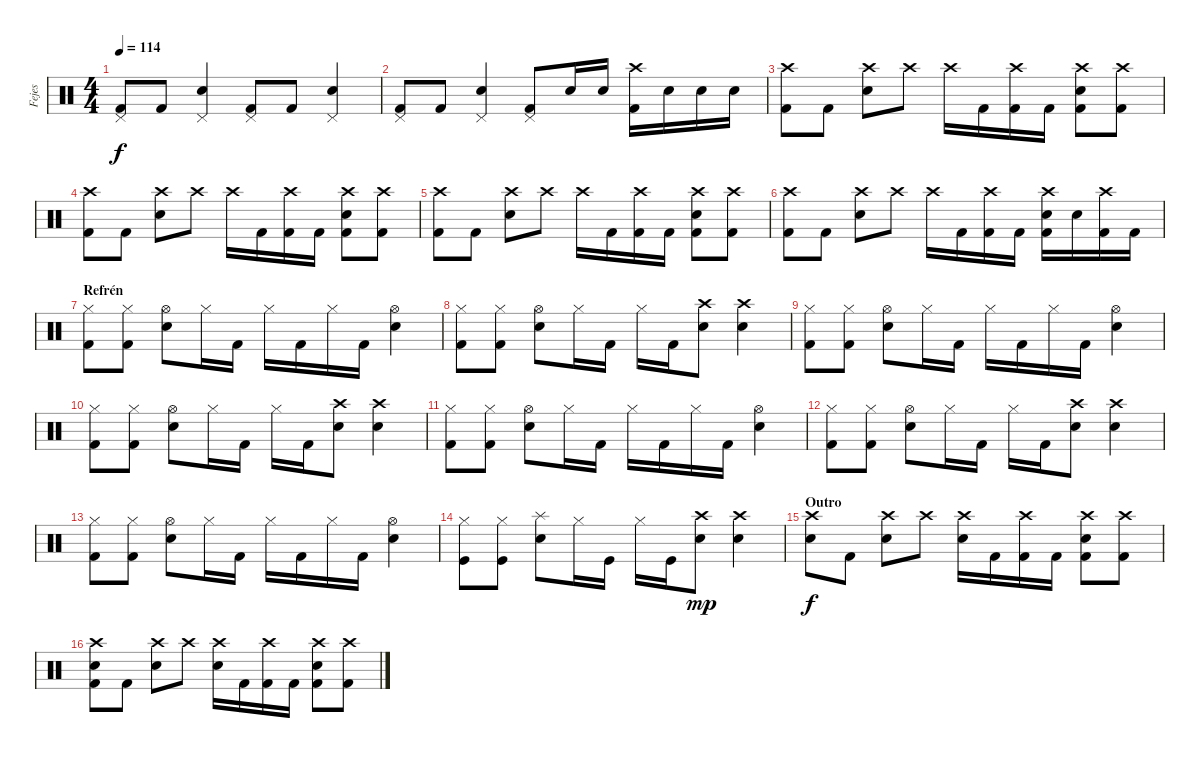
\track ("Fejes" "Fejes") {instrument percussion}
\staff {score}
\articulation defaults
\ts (4 4)
\tempo 114
\clef neutral
\ks c
("Pedal Hi-Hat (hit)" "Kick (hit) 2").8{dy f} "Kick (hit) 2".8 ("Pedal Hi-Hat (hit)" "Electric Snare (hit)").4 ("Pedal Hi-Hat (hit)" "Kick (hit) 2").8 "Kick (hit) 2".8 ("Pedal Hi-Hat (hit)" "Electric Snare (hit)").4 |
("Pedal Hi-Hat (hit)" "Kick (hit) 2").8 "Kick (hit) 2".8 ("Pedal Hi-Hat (hit)" "Electric Snare (hit)").4 ("Pedal Hi-Hat (hit)" "Kick (hit) 2").8 "Electric Snare (hit)".16 "Electric Snare (hit)".16 ("Crash high (hit)" "Kick (hit) 2").16 "Electric Snare (hit)".16 "Electric Snare (hit)".16 "Electric Snare (hit)".16 |
("Crash high (hit)" "Kick (hit) 2").8 "Kick (hit) 2".8 ("Crash high (hit)" "Electric Snare (hit)").8 "Crash high (hit)".8 "Crash high (hit)".16 "Kick (hit) 2".16 ("Crash high (hit)" "Kick (hit) 2").16 "Kick (hit) 2".16 ("Crash high (hit)" "Electric Snare (hit)" "Kick (hit) 2").8 ("Crash high (hit)" "Kick (hit) 2").8 |
("Crash high (hit)" "Kick (hit) 2").8 "Kick (hit) 2".8 ("Crash high (hit)" "Electric Snare (hit)").8 "Crash high (hit)".8 "Crash high (hit)".16 "Kick (hit) 2".16 ("Crash high (hit)" "Kick (hit) 2").16 "Kick (hit) 2".16 ("Crash high (hit)" "Electric Snare (hit)" "Kick (hit) 2").8 ("Crash high (hit)" "Kick (hit) 2").8 |
("Crash high (hit)" "Kick (hit) 2").8 "Kick (hit) 2".8 ("Crash high (hit)" "Electric Snare (hit)").8 "Crash high (hit)".8 "Crash high (hit)".16 "Kick (hit) 2".16 ("Crash high (hit)" "Kick (hit) 2").16 "Kick (hit) 2".16 ("Crash high (hit)" "Electric Snare (hit)" "Kick (hit) 2").8 ("Crash high (hit)" "Kick (hit) 2").8 |
("Crash high (hit)" "Kick (hit) 2").8 "Kick (hit) 2".8 ("Crash high (hit)" "Electric Snare (hit)").8 "Crash high (hit)".8 "Crash high (hit)".16 "Kick (hit) 2".16 ("Crash high (hit)" "Kick (hit) 2").16 "Kick (hit) 2".16 ("Crash high (hit)" "Electric Snare (hit)" "Kick (hit) 2").16 "Electric Snare (hit)".16 ("Crash high (hit)" "Kick (hit) 2").16 "Kick (hit) 2".16 |
\section ("" "Refrén")
("Hi-Hat (closed)" "Kick (hit) 2").8 ("Hi-Hat (closed)" "Kick (hit) 2").8 ("Hi-Hat (open)" "Electric Snare (hit)").8 "Hi-Hat (closed)".16 "Kick (hit) 2".16 "Hi-Hat (closed)".16 "Kick (hit) 2".16 "Hi-Hat (closed)".16 "Kick (hit) 2".16 ("Hi-Hat (open)" "Electric Snare (hit)").4 |
("Hi-Hat (closed)" "Kick (hit) 2").8 ("Hi-Hat (closed)" "Kick (hit) 2").8 ("Hi-Hat (open)" "Electric Snare (hit)").8 "Hi-Hat (closed)".16 "Kick (hit) 2".16 "Hi-Hat (closed)".16 "Kick (hit) 2".16 ("Crash high (hit)" "Electric Snare (hit)").8 ("Crash high (hit)" "Electric Snare (hit)").4 |
("Hi-Hat (closed)" "Kick (hit) 2").8 ("Hi-Hat (closed)" "Kick (hit) 2").8 ("Hi-Hat (open)" "Electric Snare (hit)").8 "Hi-Hat (closed)".16 "Kick (hit) 2".16 "Hi-Hat (closed)".16 "Kick (hit) 2".16 "Hi-Hat (closed)".16 "Kick (hit) 2".16 ("Hi-Hat (open)" "Electric Snare (hit)").4 |
("Hi-Hat (closed)" "Kick (hit) 2").8 ("Hi-Hat (closed)" "Kick (hit) 2").8 ("Hi-Hat (open)" "Electric Snare (hit)").8 "Hi-Hat (closed)".16 "Kick (hit) 2".16 "Hi-Hat (closed)".16 "Kick (hit) 2".16 ("Crash high (hit)" "Electric Snare (hit)").8 ("Crash high (hit)" "Electric Snare (hit)").4 |
("Hi-Hat (closed)" "Kick (hit) 2").8 ("Hi-Hat (closed)" "Kick (hit) 2").8 ("Hi-Hat (open)" "Electric Snare (hit)").8 "Hi-Hat (closed)".16 "Kick (hit) 2".16 "Hi-Hat (closed)".16 "Kick (hit) 2".16 "Hi-Hat (closed)".16 "Kick (hit) 2".16 ("Hi-Hat (open)" "Electric Snare (hit)").4 |
("Hi-Hat (closed)" "Kick (hit) 2").8 ("Hi-Hat (closed)" "Kick (hit) 2").8 ("Hi-Hat (open)" "Electric Snare (hit)").8 "Hi-Hat (closed)".16 "Kick (hit) 2".16 "Hi-Hat (closed)".16 "Kick (hit) 2".16 ("Crash high (hit)" "Electric Snare (hit)").8 ("Crash high (hit)" "Electric Snare (hit)").4 |
("Hi-Hat (closed)" "Kick (hit) 2").8 ("Hi-Hat (closed)" "Kick (hit) 2").8 ("Hi-Hat (open)" "Electric Snare (hit)").8 "Hi-Hat (closed)".16 "Kick (hit) 2".16 "Hi-Hat (closed)".16 "Kick (hit) 2".16 "Hi-Hat (closed)".16 "Kick (hit) 2".16 ("Hi-Hat (open)" "Electric Snare (hit)").4 |
("Kick (hit)" "Hi-Hat (closed)").8 ("Kick (hit)" "Hi-Hat (closed)").8 ("Electric Snare (hit)" "Splash (hit)").8 "Hi-Hat (closed)".16 "Kick (hit)".16 "Hi-Hat (closed)".16 "Kick (hit)".16 ("Electric Snare (hit)" "Crash high (hit)").8{dy mp} ("Electric Snare (hit)" "Crash high (hit)").4 |
\section ("" "Outro")
("Crash high (hit)" "Electric Snare (hit)").8{dy f} "Kick (hit) 2".8 ("Crash high (hit)" "Electric Snare (hit)").8 "Crash high (hit)".8 ("Crash high (hit)" "Electric Snare (hit)").16 "Kick (hit) 2".16 ("Crash high (hit)" "Kick (hit) 2").16 "Kick (hit) 2".16 ("Crash high (hit)" "Electric Snare (hit)" "Kick (hit) 2").8 ("Crash high (hit)" "Kick (hit) 2").8 |
("Crash high (hit)" "Electric Snare (hit)" "Kick (hit) 2").8 "Kick (hit) 2".8 ("Crash high (hit)" "Electric Snare (hit)").8 "Crash high (hit)".8 ("Crash high (hit)" "Electric Snare (hit)").16 "Kick (hit) 2".16 ("Crash high (hit)" "Kick (hit) 2").16 "Kick (hit) 2".16 ("Crash high (hit)" "Electric Snare (hit)" "Kick (hit) 2").8 ("Crash high (hit)" "Kick (hit) 2").8
